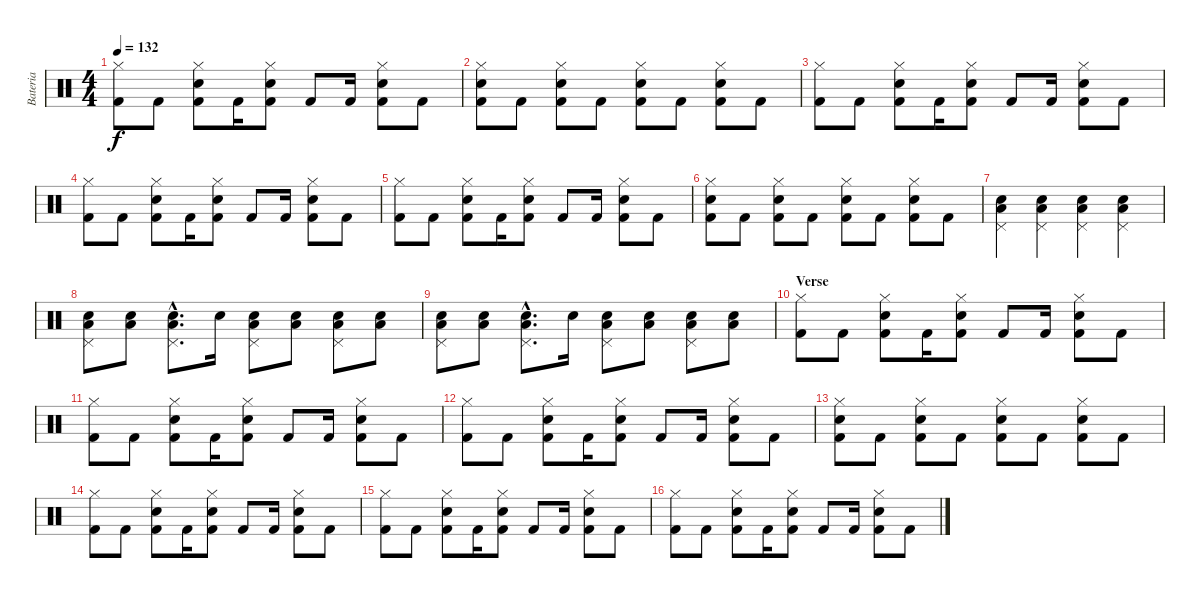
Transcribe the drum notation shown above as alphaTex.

\track ("Bateria" "Bateria") {instrument percussion}
\staff {score}
\articulation defaults
\ts (4 4)
\tempo 132
\clef neutral
\ks c
("Hi-Hat (closed)" "Kick (hit) 2").8{dy f} "Kick (hit) 2".8 ("Hi-Hat (closed)" "Kick (hit) 2" "Electric Snare (hit)").8 "Kick (hit) 2".16 ("Hi-Hat (closed)" "Kick (hit) 2" "Electric Snare (hit)").8 "Kick (hit) 2".8 "Kick (hit) 2".16 ("Hi-Hat (closed)" "Kick (hit) 2" "Electric Snare (hit)").8 "Kick (hit) 2".8 |
("Hi-Hat (closed)" "Kick (hit) 2" "Electric Snare (hit)").8 "Kick (hit) 2".8 ("Hi-Hat (closed)" "Kick (hit) 2" "Electric Snare (hit)").8 "Kick (hit) 2".8 ("Hi-Hat (closed)" "Kick (hit) 2" "Electric Snare (hit)").8 "Kick (hit) 2".8 ("Hi-Hat (closed)" "Kick (hit) 2" "Electric Snare (hit)").8 "Kick (hit) 2".8 |
("Hi-Hat (closed)" "Kick (hit) 2").8 "Kick (hit) 2".8 ("Hi-Hat (closed)" "Kick (hit) 2" "Electric Snare (hit)").8 "Kick (hit) 2".16 ("Hi-Hat (closed)" "Kick (hit) 2" "Electric Snare (hit)").8 "Kick (hit) 2".8 "Kick (hit) 2".16 ("Hi-Hat (closed)" "Kick (hit) 2" "Electric Snare (hit)").8 "Kick (hit) 2".8 |
("Hi-Hat (closed)" "Kick (hit) 2").8 "Kick (hit) 2".8 ("Hi-Hat (closed)" "Kick (hit) 2" "Electric Snare (hit)").8 "Kick (hit) 2".16 ("Hi-Hat (closed)" "Kick (hit) 2" "Electric Snare (hit)").8 "Kick (hit) 2".8 "Kick (hit) 2".16 ("Hi-Hat (closed)" "Kick (hit) 2" "Electric Snare (hit)").8 "Kick (hit) 2".8 |
("Hi-Hat (closed)" "Kick (hit) 2").8 "Kick (hit) 2".8 ("Hi-Hat (closed)" "Kick (hit) 2" "Electric Snare (hit)").8 "Kick (hit) 2".16 ("Hi-Hat (closed)" "Kick (hit) 2" "Electric Snare (hit)").8 "Kick (hit) 2".8 "Kick (hit) 2".16 ("Hi-Hat (closed)" "Kick (hit) 2" "Electric Snare (hit)").8 "Kick (hit) 2".8 |
("Hi-Hat (closed)" "Kick (hit) 2" "Electric Snare (hit)").8 "Kick (hit) 2".8 ("Hi-Hat (closed)" "Kick (hit) 2" "Electric Snare (hit)").8 "Kick (hit) 2".8 ("Hi-Hat (closed)" "Kick (hit) 2" "Electric Snare (hit)").8 "Kick (hit) 2".8 ("Hi-Hat (closed)" "Kick (hit) 2" "Electric Snare (hit)").8 "Kick (hit) 2".8 |
("Pedal Hi-Hat (hit)" "Electric Snare (hit)" "Low Floor Tom (hit)").4 ("Pedal Hi-Hat (hit)" "Electric Snare (hit)" "Low Floor Tom (hit)").4 ("Pedal Hi-Hat (hit)" "Electric Snare (hit)" "Low Floor Tom (hit)").4 ("Pedal Hi-Hat (hit)" "Electric Snare (hit)" "Low Floor Tom (hit)").4 |
("Pedal Hi-Hat (hit)" "Electric Snare (hit)" "Low Floor Tom (hit)").8 ("Electric Snare (hit)" "Low Floor Tom (hit)").8 ("Pedal Hi-Hat (hit)"{hac} "Electric Snare (hit)"{hac} "Low Floor Tom (hit)"{hac}).8{d} "Electric Snare (hit)".16 ("Pedal Hi-Hat (hit)" "Electric Snare (hit)" "Low Floor Tom (hit)").8 ("Electric Snare (hit)" "Low Floor Tom (hit)").8 ("Pedal Hi-Hat (hit)" "Electric Snare (hit)" "Low Floor Tom (hit)").8 ("Electric Snare (hit)" "Low Floor Tom (hit)").8 |
("Pedal Hi-Hat (hit)" "Electric Snare (hit)" "Low Floor Tom (hit)").8 ("Electric Snare (hit)" "Low Floor Tom (hit)").8 ("Pedal Hi-Hat (hit)"{hac} "Electric Snare (hit)"{hac} "Low Floor Tom (hit)"{hac}).8{d} "Electric Snare (hit)".16 ("Pedal Hi-Hat (hit)" "Electric Snare (hit)" "Low Floor Tom (hit)").8 ("Electric Snare (hit)" "Low Floor Tom (hit)").8 ("Pedal Hi-Hat (hit)" "Electric Snare (hit)" "Low Floor Tom (hit)").8 ("Electric Snare (hit)" "Low Floor Tom (hit)").8 |
\section ("" "Verse")
("Hi-Hat (closed)" "Kick (hit) 2").8 "Kick (hit) 2".8 ("Hi-Hat (closed)" "Kick (hit) 2" "Electric Snare (hit)").8 "Kick (hit) 2".16 ("Hi-Hat (closed)" "Kick (hit) 2" "Electric Snare (hit)").8 "Kick (hit) 2".8 "Kick (hit) 2".16 ("Hi-Hat (closed)" "Kick (hit) 2" "Electric Snare (hit)").8 "Kick (hit) 2".8 |
("Hi-Hat (closed)" "Kick (hit) 2").8 "Kick (hit) 2".8 ("Hi-Hat (closed)" "Kick (hit) 2" "Electric Snare (hit)").8 "Kick (hit) 2".16 ("Hi-Hat (closed)" "Kick (hit) 2" "Electric Snare (hit)").8 "Kick (hit) 2".8 "Kick (hit) 2".16 ("Hi-Hat (closed)" "Kick (hit) 2" "Electric Snare (hit)").8 "Kick (hit) 2".8 |
("Hi-Hat (closed)" "Kick (hit) 2").8 "Kick (hit) 2".8 ("Hi-Hat (closed)" "Kick (hit) 2" "Electric Snare (hit)").8 "Kick (hit) 2".16 ("Hi-Hat (closed)" "Kick (hit) 2" "Electric Snare (hit)").8 "Kick (hit) 2".8 "Kick (hit) 2".16 ("Hi-Hat (closed)" "Kick (hit) 2" "Electric Snare (hit)").8 "Kick (hit) 2".8 |
("Hi-Hat (closed)" "Kick (hit) 2" "Electric Snare (hit)").8 "Kick (hit) 2".8 ("Hi-Hat (closed)" "Kick (hit) 2" "Electric Snare (hit)").8 "Kick (hit) 2".8 ("Hi-Hat (closed)" "Kick (hit) 2" "Electric Snare (hit)").8 "Kick (hit) 2".8 ("Hi-Hat (closed)" "Kick (hit) 2" "Electric Snare (hit)").8 "Kick (hit) 2".8 |
("Hi-Hat (closed)" "Kick (hit) 2").8 "Kick (hit) 2".8 ("Hi-Hat (closed)" "Kick (hit) 2" "Electric Snare (hit)").8 "Kick (hit) 2".16 ("Hi-Hat (closed)" "Kick (hit) 2" "Electric Snare (hit)").8 "Kick (hit) 2".8 "Kick (hit) 2".16 ("Hi-Hat (closed)" "Kick (hit) 2" "Electric Snare (hit)").8 "Kick (hit) 2".8 |
("Hi-Hat (closed)" "Kick (hit) 2").8 "Kick (hit) 2".8 ("Hi-Hat (closed)" "Kick (hit) 2" "Electric Snare (hit)").8 "Kick (hit) 2".16 ("Hi-Hat (closed)" "Kick (hit) 2" "Electric Snare (hit)").8 "Kick (hit) 2".8 "Kick (hit) 2".16 ("Hi-Hat (closed)" "Kick (hit) 2" "Electric Snare (hit)").8 "Kick (hit) 2".8 |
("Hi-Hat (closed)" "Kick (hit) 2").8 "Kick (hit) 2".8 ("Hi-Hat (closed)" "Kick (hit) 2" "Electric Snare (hit)").8 "Kick (hit) 2".16 ("Hi-Hat (closed)" "Kick (hit) 2" "Electric Snare (hit)").8 "Kick (hit) 2".8 "Kick (hit) 2".16 ("Hi-Hat (closed)" "Kick (hit) 2" "Electric Snare (hit)").8 "Kick (hit) 2".8
